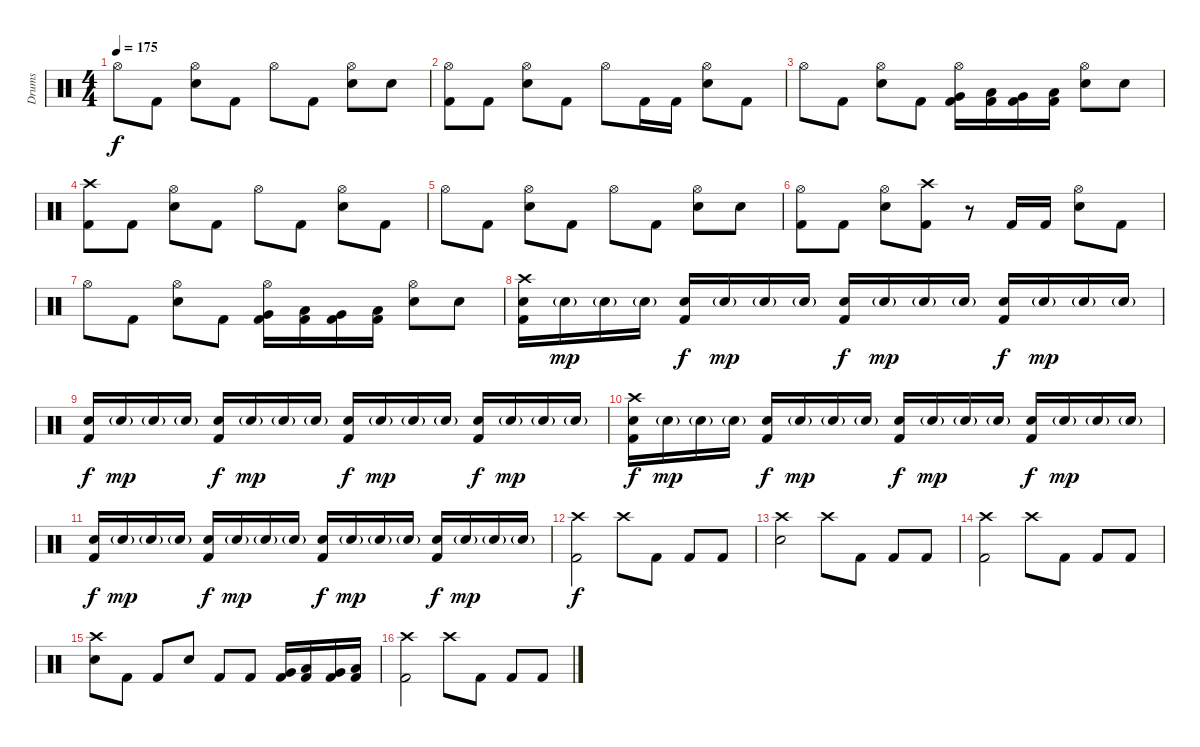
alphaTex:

\track ("Drums" "Drums") {instrument percussion}
\staff {score}
\articulation defaults
\ts (4 4)
\tempo 175
\clef neutral
\ks c "Hi-Hat (open)".8{dy f} "Kick (hit) 2".8
("Hi-Hat (open)" "Electric Snare (hit)").8 "Kick (hit) 2".8 "Hi-Hat (open)".8 "Kick (hit) 2".8 ("Hi-Hat (open)" "Electric Snare (hit)").8 "Electric Snare (hit)".8 |
("Hi-Hat (open)" "Kick (hit) 2").8 "Kick (hit) 2".8 ("Hi-Hat (open)" "Electric Snare (hit)").8 "Kick (hit) 2".8 "Hi-Hat (open)".8 "Kick (hit) 2".16 "Kick (hit) 2".16 ("Hi-Hat (open)" "Electric Snare (hit)").8 "Kick (hit) 2".8 |
"Hi-Hat (open)".8 "Kick (hit) 2".8 ("Hi-Hat (open)" "Electric Snare (hit)").8 "Kick (hit) 2".8 ("Hi-Hat (open)" "Very Low Tom (hit)" "Kick (hit) 2").16 ("Low Tom (hit)" "Kick (hit) 2").16 ("Very Low Tom (hit)" "Kick (hit) 2").16 ("Low Floor Tom (hit)" "Kick (hit) 2").16 ("Hi-Hat (open)" "Electric Snare (hit)").8 "Electric Snare (hit)".8 |
("Crash high (hit)" "Kick (hit) 2").8 "Kick (hit) 2".8 ("Hi-Hat (open)" "Electric Snare (hit)").8 "Kick (hit) 2".8 "Hi-Hat (open)".8 "Kick (hit) 2".8 ("Hi-Hat (open)" "Electric Snare (hit)").8 "Kick (hit) 2".8 |
"Hi-Hat (open)".8 "Kick (hit) 2".8 ("Hi-Hat (open)" "Electric Snare (hit)").8 "Kick (hit) 2".8 "Hi-Hat (open)".8 "Kick (hit) 2".8 ("Hi-Hat (open)" "Electric Snare (hit)").8 "Electric Snare (hit)".8 |
("Hi-Hat (open)" "Kick (hit) 2").8 "Kick (hit) 2".8 ("Hi-Hat (open)" "Electric Snare (hit)").8 ("Crash high (hit)" "Kick (hit) 2").8 r.8 "Kick (hit) 2".16 "Kick (hit) 2".16 ("Hi-Hat (open)" "Electric Snare (hit)").8 "Kick (hit) 2".8 |
"Hi-Hat (open)".8 "Kick (hit) 2".8 ("Hi-Hat (open)" "Electric Snare (hit)").8 "Kick (hit) 2".8 ("Hi-Hat (open)" "Very Low Tom (hit)" "Kick (hit) 2").16 ("Low Tom (hit)" "Kick (hit) 2").16 ("Very Low Tom (hit)" "Kick (hit) 2").16 ("Low Floor Tom (hit)" "Kick (hit) 2").16 ("Hi-Hat (open)" "Electric Snare (hit)").8 "Electric Snare (hit)".8 |
("Crash high (hit)" "Electric Snare (hit)" "Kick (hit) 2").16 "Electric Snare (hit)"{g}.16{dy mp} "Electric Snare (hit)"{g}.16 "Electric Snare (hit)"{g}.16 ("Electric Snare (hit)" "Kick (hit) 2").16{dy f} "Electric Snare (hit)"{g}.16{dy mp} "Electric Snare (hit)"{g}.16 "Electric Snare (hit)"{g}.16 ("Electric Snare (hit)" "Kick (hit) 2").16{dy f} "Electric Snare (hit)"{g}.16{dy mp} "Electric Snare (hit)"{g}.16 "Electric Snare (hit)"{g}.16 ("Electric Snare (hit)" "Kick (hit) 2").16{dy f} "Electric Snare (hit)"{g}.16{dy mp} "Electric Snare (hit)"{g}.16 "Electric Snare (hit)"{g}.16 |
("Electric Snare (hit)" "Kick (hit) 2").16{dy f} "Electric Snare (hit)"{g}.16{dy mp} "Electric Snare (hit)"{g}.16 "Electric Snare (hit)"{g}.16 ("Electric Snare (hit)" "Kick (hit) 2").16{dy f} "Electric Snare (hit)"{g}.16{dy mp} "Electric Snare (hit)"{g}.16 "Electric Snare (hit)"{g}.16 ("Electric Snare (hit)" "Kick (hit) 2").16{dy f} "Electric Snare (hit)"{g}.16{dy mp} "Electric Snare (hit)"{g}.16 "Electric Snare (hit)"{g}.16 ("Electric Snare (hit)" "Kick (hit) 2").16{dy f} "Electric Snare (hit)"{g}.16{dy mp} "Electric Snare (hit)"{g}.16 "Electric Snare (hit)"{g}.16 |
("Crash high (hit)" "Electric Snare (hit)" "Kick (hit) 2").16{dy f} "Electric Snare (hit)"{g}.16{dy mp} "Electric Snare (hit)"{g}.16 "Electric Snare (hit)"{g}.16 ("Electric Snare (hit)" "Kick (hit) 2").16{dy f} "Electric Snare (hit)"{g}.16{dy mp} "Electric Snare (hit)"{g}.16 "Electric Snare (hit)"{g}.16 ("Electric Snare (hit)" "Kick (hit) 2").16{dy f} "Electric Snare (hit)"{g}.16{dy mp} "Electric Snare (hit)"{g}.16 "Electric Snare (hit)"{g}.16 ("Electric Snare (hit)" "Kick (hit) 2").16{dy f} "Electric Snare (hit)"{g}.16{dy mp} "Electric Snare (hit)"{g}.16 "Electric Snare (hit)"{g}.16 |
("Electric Snare (hit)" "Kick (hit) 2").16{dy f} "Electric Snare (hit)"{g}.16{dy mp} "Electric Snare (hit)"{g}.16 "Electric Snare (hit)"{g}.16 ("Electric Snare (hit)" "Kick (hit) 2").16{dy f} "Electric Snare (hit)"{g}.16{dy mp} "Electric Snare (hit)"{g}.16 "Electric Snare (hit)"{g}.16 ("Electric Snare (hit)" "Kick (hit) 2").16{dy f} "Electric Snare (hit)"{g}.16{dy mp} "Electric Snare (hit)"{g}.16 "Electric Snare (hit)"{g}.16 ("Electric Snare (hit)" "Kick (hit) 2").16{dy f} "Electric Snare (hit)"{g}.16{dy mp} "Electric Snare (hit)"{g}.16 "Electric Snare (hit)"{g}.16 |
("Crash high (hit)" "Kick (hit) 2").2{dy f} "Crash high (hit)".8 "Kick (hit) 2".8 "Kick (hit) 2".8 "Kick (hit) 2".8 |
("Crash high (hit)" "Electric Snare (hit)").2 "Crash high (hit)".8 "Kick (hit) 2".8 "Kick (hit) 2".8 "Kick (hit) 2".8 |
("Crash high (hit)" "Kick (hit) 2").2 "Crash high (hit)".8 "Kick (hit) 2".8 "Kick (hit) 2".8 "Kick (hit) 2".8 |
("Crash high (hit)" "Electric Snare (hit)").8 "Kick (hit) 2".8 "Kick (hit) 2".8 "Electric Snare (hit)".8 "Kick (hit) 2".8 "Kick (hit) 2".8 ("Very Low Tom (hit)" "Kick (hit) 2").16 ("Low Tom (hit)" "Kick (hit) 2").16 ("Very Low Tom (hit)" "Kick (hit) 2").16 ("Low Floor Tom (hit)" "Kick (hit) 2").16 |
("Crash high (hit)" "Kick (hit) 2").2 "Crash high (hit)".8 "Kick (hit) 2".8 "Kick (hit) 2".8 "Kick (hit) 2".8
